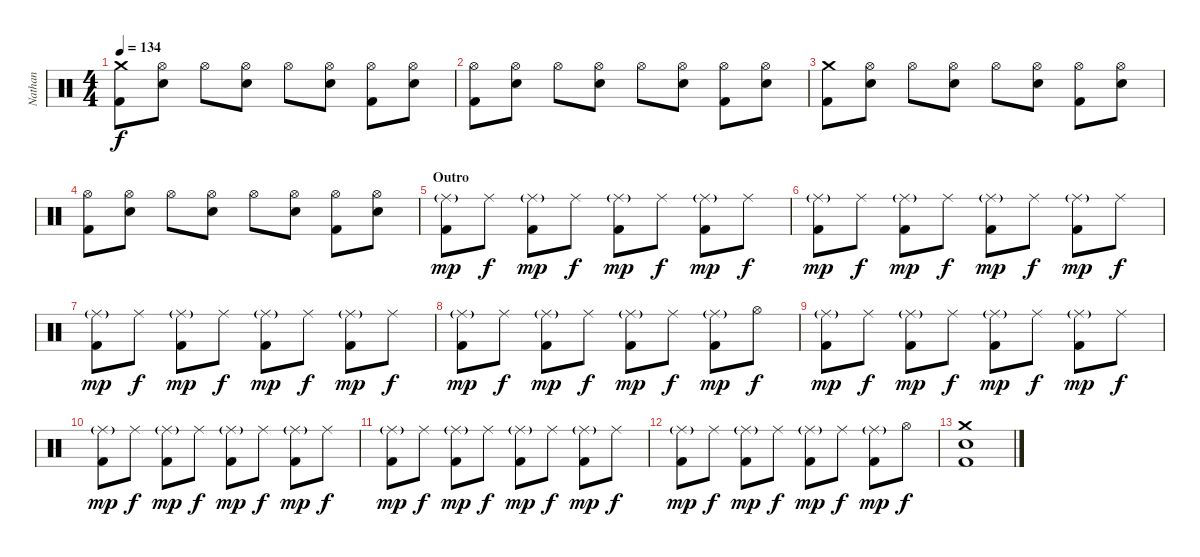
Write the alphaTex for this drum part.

\track ("Nathan" "Nathan") {instrument percussion}
\staff {score}
\articulation defaults
\ts (4 4)
\tempo 134
\clef neutral
\ks c
("Crash medium (hit)" "Kick (hit) 2").8{dy f} ("Hi-Hat (open)" "Snare (hit) 2").8 "Hi-Hat (open)".8 ("Hi-Hat (open)" "Snare (hit) 2").8 "Hi-Hat (open)".8 ("Hi-Hat (open)" "Snare (hit) 2").8 ("Hi-Hat (open)" "Kick (hit) 2").8 ("Hi-Hat (open)" "Snare (hit) 2").8 |
("Hi-Hat (open)" "Kick (hit) 2").8 ("Hi-Hat (open)" "Snare (hit) 2").8 "Hi-Hat (open)".8 ("Hi-Hat (open)" "Snare (hit) 2").8 "Hi-Hat (open)".8 ("Hi-Hat (open)" "Snare (hit) 2").8 ("Hi-Hat (open)" "Kick (hit) 2").8 ("Hi-Hat (open)" "Snare (hit) 2").8 |
("Crash medium (hit)" "Kick (hit) 2").8 ("Hi-Hat (open)" "Snare (hit) 2").8 "Hi-Hat (open)".8 ("Hi-Hat (open)" "Snare (hit) 2").8 "Hi-Hat (open)".8 ("Hi-Hat (open)" "Snare (hit) 2").8 ("Hi-Hat (open)" "Kick (hit) 2").8 ("Hi-Hat (open)" "Snare (hit) 2").8 |
("Hi-Hat (open)" "Kick (hit) 2").8 ("Hi-Hat (open)" "Snare (hit) 2").8 "Hi-Hat (open)".8 ("Hi-Hat (open)" "Snare (hit) 2").8 "Hi-Hat (open)".8 ("Hi-Hat (open)" "Snare (hit) 2").8 ("Hi-Hat (open)" "Kick (hit) 2").8 ("Hi-Hat (open)" "Snare (hit) 2").8 |
\section ("" "Outro")
("Ride (middle)"{g} "Kick (hit) 2").8{dy mp} "Ride (middle)".8{dy f} ("Ride (middle)"{g} "Kick (hit) 2").8{dy mp} "Ride (middle)".8{dy f} ("Ride (middle)"{g} "Kick (hit) 2").8{dy mp} "Ride (middle)".8{dy f} ("Ride (middle)"{g} "Kick (hit) 2").8{dy mp} "Ride (middle)".8{dy f} |
("Ride (middle)"{g} "Kick (hit) 2").8{dy mp} "Ride (middle)".8{dy f} ("Ride (middle)"{g} "Kick (hit) 2").8{dy mp} "Ride (middle)".8{dy f} ("Ride (middle)"{g} "Kick (hit) 2").8{dy mp} "Ride (middle)".8{dy f} ("Ride (middle)"{g} "Kick (hit) 2").8{dy mp} "Ride (middle)".8{dy f} |
("Ride (middle)"{g} "Kick (hit) 2").8{dy mp} "Ride (middle)".8{dy f} ("Ride (middle)"{g} "Kick (hit) 2").8{dy mp} "Ride (middle)".8{dy f} ("Ride (middle)"{g} "Kick (hit) 2").8{dy mp} "Ride (middle)".8{dy f} ("Ride (middle)"{g} "Kick (hit) 2").8{dy mp} "Ride (middle)".8{dy f} |
("Ride (middle)"{g} "Kick (hit) 2").8{dy mp} "Ride (middle)".8{dy f} ("Ride (middle)"{g} "Kick (hit) 2").8{dy mp} "Ride (middle)".8{dy f} ("Ride (middle)"{g} "Kick (hit) 2").8{dy mp} "Ride (middle)".8{dy f} ("Ride (middle)"{g} "Kick (hit) 2").8{dy mp} "Hi-Hat (open)".8{dy f} |
("Ride (middle)"{g} "Kick (hit) 2").8{dy mp} "Ride (middle)".8{dy f} ("Ride (middle)"{g} "Kick (hit) 2").8{dy mp} "Ride (middle)".8{dy f} ("Ride (middle)"{g} "Kick (hit) 2").8{dy mp} "Ride (middle)".8{dy f} ("Ride (middle)"{g} "Kick (hit) 2").8{dy mp} "Ride (middle)".8{dy f} |
("Ride (middle)"{g} "Kick (hit) 2").8{dy mp} "Ride (middle)".8{dy f} ("Ride (middle)"{g} "Kick (hit) 2").8{dy mp} "Ride (middle)".8{dy f} ("Ride (middle)"{g} "Kick (hit) 2").8{dy mp} "Ride (middle)".8{dy f} ("Ride (middle)"{g} "Kick (hit) 2").8{dy mp} "Ride (middle)".8{dy f} |
("Ride (middle)"{g} "Kick (hit) 2").8{dy mp} "Ride (middle)".8{dy f} ("Ride (middle)"{g} "Kick (hit) 2").8{dy mp} "Ride (middle)".8{dy f} ("Ride (middle)"{g} "Kick (hit) 2").8{dy mp} "Ride (middle)".8{dy f} ("Ride (middle)"{g} "Kick (hit) 2").8{dy mp} "Ride (middle)".8{dy f} |
("Ride (middle)"{g} "Kick (hit) 2").8{dy mp} "Ride (middle)".8{dy f} ("Ride (middle)"{g} "Kick (hit) 2").8{dy mp} "Ride (middle)".8{dy f} ("Ride (middle)"{g} "Kick (hit) 2").8{dy mp} "Ride (middle)".8{dy f} ("Ride (middle)"{g} "Kick (hit) 2").8{dy mp} "Hi-Hat (open)".8{dy f} |
("Crash medium (hit)" "Electric Snare (hit)" "Kick (hit) 2").1
